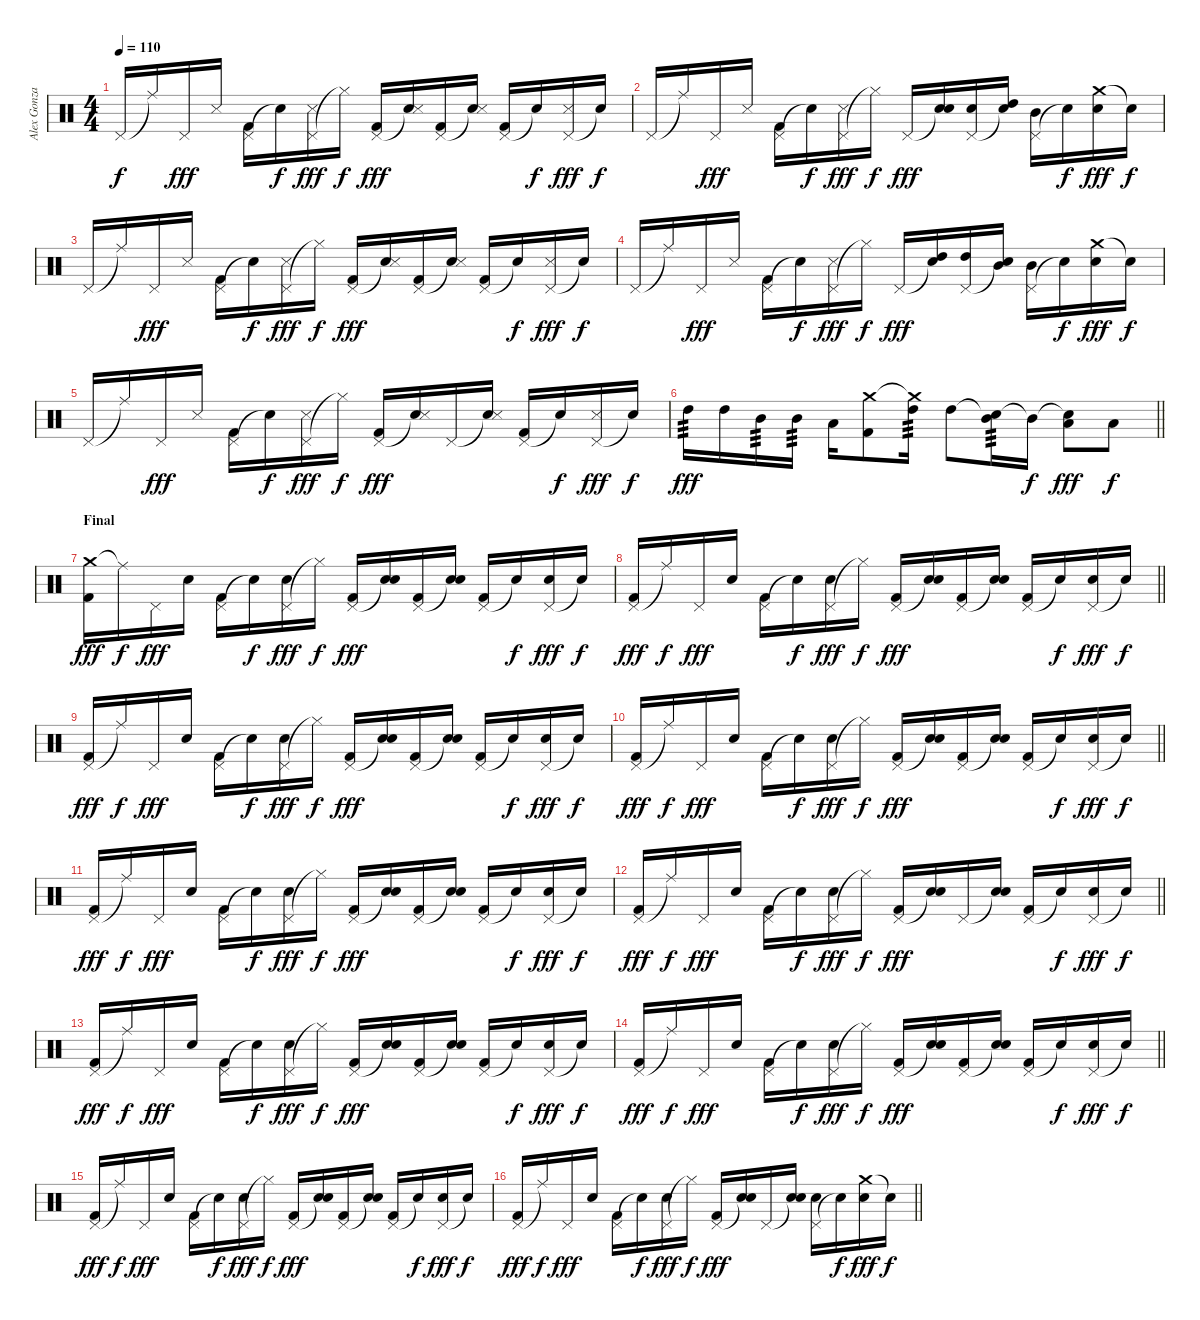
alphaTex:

\track ("Alex Gonzalez" "Alex Gonza") {instrument percussion}
\staff {score}
\articulation defaults
\ts (4 4)
\tempo 110
\clef neutral
\ks c "Pedal Hi-Hat (hit)".16{dy f} "Ride (middle)"{t}.16 "Pedal Hi-Hat (hit)".16{dy fff} "Snare (side stick) 3".16
("Pedal Hi-Hat (hit)" "Kick (hit) 2").16 "Snare (hit)"{t}.16{dy f} ("Pedal Hi-Hat (hit)" "Snare (side stick) 3").16{dy fff} "Hi-Hat (closed)"{t}.16{dy f} ("Pedal Hi-Hat (hit)" "Kick (hit) 2").16{dy fff} ("Snare (hit)"{t} "Snare (side stick) 3").16 ("Pedal Hi-Hat (hit)" "Kick (hit) 2").16 ("Snare (hit)"{t} "Snare (side stick) 3").16 ("Pedal Hi-Hat (hit)" "Kick (hit) 2").16 "Snare (hit)"{t}.16{dy f} ("Pedal Hi-Hat (hit)" "Snare (side stick) 3").16{dy fff} "Snare (hit)"{t}.16{dy f} |
"Pedal Hi-Hat (hit)".16 "Ride (middle)"{t}.16 "Pedal Hi-Hat (hit)".16{dy fff} "Snare (side stick) 3".16 ("Pedal Hi-Hat (hit)" "Kick (hit) 2").16 "Snare (hit)"{t}.16{dy f} ("Pedal Hi-Hat (hit)" "Snare (side stick) 3").16{dy fff} "Hi-Hat (closed)"{t}.16{dy f} "Pedal Hi-Hat (hit)".16{dy fff} ("Snare (hit)"{t} "Electric Snare (hit)").16 ("Pedal Hi-Hat (hit)" "Electric Snare (hit)").16 ("Snare (hit)"{t} "High Tom (hit)").16 ("Pedal Hi-Hat (hit)" "Mid Tom (hit)").16 "Snare (hit)"{t}.16{dy f} ("Crash medium (hit)" "Electric Snare (hit)").16{dy fff} "Snare (hit)"{t}.16{dy f} |
"Pedal Hi-Hat (hit)".16 "Ride (middle)"{t}.16 "Pedal Hi-Hat (hit)".16{dy fff} "Snare (side stick) 3".16 ("Pedal Hi-Hat (hit)" "Kick (hit) 2").16 "Snare (hit)"{t}.16{dy f} ("Pedal Hi-Hat (hit)" "Snare (side stick) 3").16{dy fff} "Hi-Hat (closed)"{t}.16{dy f} ("Pedal Hi-Hat (hit)" "Kick (hit) 2").16{dy fff} ("Snare (hit)"{t} "Snare (side stick) 3").16 ("Pedal Hi-Hat (hit)" "Kick (hit) 2").16 ("Snare (hit)"{t} "Snare (side stick) 3").16 ("Pedal Hi-Hat (hit)" "Kick (hit) 2").16 "Snare (hit)"{t}.16{dy f} ("Pedal Hi-Hat (hit)" "Snare (side stick) 3").16{dy fff} "Snare (hit)"{t}.16{dy f} |
"Pedal Hi-Hat (hit)".16 "Ride (middle)"{t}.16 "Pedal Hi-Hat (hit)".16{dy fff} "Snare (side stick) 3".16 ("Pedal Hi-Hat (hit)" "Kick (hit) 2").16 "Snare (hit)"{t}.16{dy f} ("Pedal Hi-Hat (hit)" "Snare (side stick) 3").16{dy fff} "Hi-Hat (closed)"{t}.16{dy f} "Pedal Hi-Hat (hit)".16{dy fff} ("Snare (hit)"{t} "High Tom (hit)").16 ("Pedal Hi-Hat (hit)" "High Tom (hit)").16 ("Snare (hit)"{t} "Mid Tom (hit)").16 ("Pedal Hi-Hat (hit)" "Mid Tom (hit)").16 "Snare (hit)"{t}.16{dy f} ("Crash medium (hit)" "Electric Snare (hit)").16{dy fff} "Snare (hit)"{t}.16{dy f} |
"Pedal Hi-Hat (hit)".16 "Ride (middle)"{t}.16 "Pedal Hi-Hat (hit)".16{dy fff} "Snare (side stick) 3".16 ("Pedal Hi-Hat (hit)" "Kick (hit) 2").16 "Snare (hit)"{t}.16{dy f} ("Pedal Hi-Hat (hit)" "Snare (side stick) 3").16{dy fff} "Hi-Hat (closed)"{t}.16{dy f} ("Pedal Hi-Hat (hit)" "Kick (hit) 2").16{dy fff} ("Snare (hit)"{t} "Snare (side stick) 3").16 "Pedal Hi-Hat (hit)".16 ("Snare (hit)"{t} "Snare (side stick) 3").16 ("Pedal Hi-Hat (hit)" "Kick (hit) 2").16 "Snare (hit)"{t}.16{dy f} ("Pedal Hi-Hat (hit)" "Snare (side stick) 3").16{dy fff} "Snare (hit)"{t}.16{dy f} |
\barLineRight lightlight "High Tom (hit)".16{tp 3 dy fff} "High Tom (hit)".16 "Mid Tom (hit)".16{tp 3} "Mid Tom (hit)".16{tp 3} "Low Tom (hit)".16
("Crash medium (hit)" "Kick (hit) 2").8 ("Crash medium (hit)"{t} "High Tom (hit)").16{tp 3} "High Tom (hit)".8 ("Snare (hit)"{t} "Mid Tom (hit)").16{tp 3} "Mid Tom (hit)"{t}.16{dy f} ("Snare (hit)"{t} "Low Tom (hit)").8{dy fff} "Low Tom (hit)".8{dy f} |
\section ("" "Final")
("Crash medium (hit)" "Kick (hit) 2").16{dy fff} "Ride (middle)"{t}.16{dy f} "Pedal Hi-Hat (hit)".16{dy fff} "Electric Snare (hit)".16 ("Pedal Hi-Hat (hit)" "Kick (hit) 2").16 "Snare (hit)"{t}.16{dy f} ("Pedal Hi-Hat (hit)" "Electric Snare (hit)").16{dy fff} "Hi-Hat (closed)"{t}.16{dy f} ("Pedal Hi-Hat (hit)" "Kick (hit) 2").16{dy fff} ("Snare (hit)"{t} "Electric Snare (hit)").16 ("Pedal Hi-Hat (hit)" "Kick (hit) 2").16 ("Snare (hit)"{t} "Electric Snare (hit)").16 ("Pedal Hi-Hat (hit)" "Kick (hit) 2").16 "Snare (hit)"{t}.16{dy f} ("Pedal Hi-Hat (hit)" "Electric Snare (hit)").16{dy fff} "Snare (hit)"{t}.16{dy f} |
\barLineRight lightlight
("Pedal Hi-Hat (hit)" "Kick (hit) 2").16{dy fff} "Ride (middle)"{t}.16{dy f} "Pedal Hi-Hat (hit)".16{dy fff} "Electric Snare (hit)".16 ("Pedal Hi-Hat (hit)" "Kick (hit) 2").16 "Snare (hit)"{t}.16{dy f} ("Pedal Hi-Hat (hit)" "Electric Snare (hit)").16{dy fff} "Hi-Hat (closed)"{t}.16{dy f} ("Pedal Hi-Hat (hit)" "Kick (hit) 2").16{dy fff} ("Snare (hit)"{t} "Electric Snare (hit)").16 ("Pedal Hi-Hat (hit)" "Kick (hit) 2").16 ("Snare (hit)"{t} "Electric Snare (hit)").16 ("Pedal Hi-Hat (hit)" "Kick (hit) 2").16 "Snare (hit)"{t}.16{dy f} ("Pedal Hi-Hat (hit)" "Electric Snare (hit)").16{dy fff} "Snare (hit)"{t}.16{dy f} |
("Pedal Hi-Hat (hit)" "Kick (hit) 2").16{dy fff} "Ride (middle)"{t}.16{dy f} "Pedal Hi-Hat (hit)".16{dy fff} "Electric Snare (hit)".16 ("Pedal Hi-Hat (hit)" "Kick (hit) 2").16 "Snare (hit)"{t}.16{dy f} ("Pedal Hi-Hat (hit)" "Electric Snare (hit)").16{dy fff} "Hi-Hat (closed)"{t}.16{dy f} ("Pedal Hi-Hat (hit)" "Kick (hit) 2").16{dy fff} ("Snare (hit)"{t} "Electric Snare (hit)").16 ("Pedal Hi-Hat (hit)" "Kick (hit) 2").16 ("Snare (hit)"{t} "Electric Snare (hit)").16 ("Pedal Hi-Hat (hit)" "Kick (hit) 2").16 "Snare (hit)"{t}.16{dy f} ("Pedal Hi-Hat (hit)" "Electric Snare (hit)").16{dy fff} "Snare (hit)"{t}.16{dy f} |
\barLineRight lightlight
("Pedal Hi-Hat (hit)" "Kick (hit) 2").16{dy fff} "Ride (middle)"{t}.16{dy f} "Pedal Hi-Hat (hit)".16{dy fff} "Electric Snare (hit)".16 ("Pedal Hi-Hat (hit)" "Kick (hit) 2").16 "Snare (hit)"{t}.16{dy f} ("Pedal Hi-Hat (hit)" "Electric Snare (hit)").16{dy fff} "Hi-Hat (closed)"{t}.16{dy f} ("Pedal Hi-Hat (hit)" "Kick (hit) 2").16{dy fff} ("Snare (hit)"{t} "Electric Snare (hit)").16 ("Pedal Hi-Hat (hit)" "Kick (hit) 2").16 ("Snare (hit)"{t} "Electric Snare (hit)").16 ("Pedal Hi-Hat (hit)" "Kick (hit) 2").16 "Snare (hit)"{t}.16{dy f} ("Pedal Hi-Hat (hit)" "Electric Snare (hit)").16{dy fff} "Snare (hit)"{t}.16{dy f} |
("Pedal Hi-Hat (hit)" "Kick (hit) 2").16{dy fff} "Ride (middle)"{t}.16{dy f} "Pedal Hi-Hat (hit)".16{dy fff} "Electric Snare (hit)".16 ("Pedal Hi-Hat (hit)" "Kick (hit) 2").16 "Snare (hit)"{t}.16{dy f} ("Pedal Hi-Hat (hit)" "Electric Snare (hit)").16{dy fff} "Hi-Hat (closed)"{t}.16{dy f} ("Pedal Hi-Hat (hit)" "Kick (hit) 2").16{dy fff} ("Snare (hit)"{t} "Electric Snare (hit)").16 ("Pedal Hi-Hat (hit)" "Kick (hit) 2").16 ("Snare (hit)"{t} "Electric Snare (hit)").16 ("Pedal Hi-Hat (hit)" "Kick (hit) 2").16 "Snare (hit)"{t}.16{dy f} ("Pedal Hi-Hat (hit)" "Electric Snare (hit)").16{dy fff} "Snare (hit)"{t}.16{dy f} |
\barLineRight lightlight
("Pedal Hi-Hat (hit)" "Kick (hit) 2").16{dy fff} "Ride (middle)"{t}.16{dy f} "Pedal Hi-Hat (hit)".16{dy fff} "Electric Snare (hit)".16 ("Pedal Hi-Hat (hit)" "Kick (hit) 2").16 "Snare (hit)"{t}.16{dy f} ("Pedal Hi-Hat (hit)" "Electric Snare (hit)").16{dy fff} "Hi-Hat (closed)"{t}.16{dy f} ("Pedal Hi-Hat (hit)" "Kick (hit) 2").16{dy fff} ("Snare (hit)"{t} "Electric Snare (hit)").16 "Pedal Hi-Hat (hit)".16 ("Snare (hit)"{t} "Electric Snare (hit)").16 ("Pedal Hi-Hat (hit)" "Kick (hit) 2").16 "Snare (hit)"{t}.16{dy f} ("Pedal Hi-Hat (hit)" "Electric Snare (hit)").16{dy fff} "Snare (hit)"{t}.16{dy f} |
("Pedal Hi-Hat (hit)" "Kick (hit) 2").16{dy fff} "Ride (middle)"{t}.16{dy f} "Pedal Hi-Hat (hit)".16{dy fff} "Electric Snare (hit)".16 ("Pedal Hi-Hat (hit)" "Kick (hit) 2").16 "Snare (hit)"{t}.16{dy f} ("Pedal Hi-Hat (hit)" "Electric Snare (hit)").16{dy fff} "Hi-Hat (closed)"{t}.16{dy f} ("Pedal Hi-Hat (hit)" "Kick (hit) 2").16{dy fff} ("Snare (hit)"{t} "Electric Snare (hit)").16 ("Pedal Hi-Hat (hit)" "Kick (hit) 2").16 ("Snare (hit)"{t} "Electric Snare (hit)").16 ("Pedal Hi-Hat (hit)" "Kick (hit) 2").16 "Snare (hit)"{t}.16{dy f} ("Pedal Hi-Hat (hit)" "Electric Snare (hit)").16{dy fff} "Snare (hit)"{t}.16{dy f} |
\barLineRight lightlight
("Pedal Hi-Hat (hit)" "Kick (hit) 2").16{dy fff} "Ride (middle)"{t}.16{dy f} "Pedal Hi-Hat (hit)".16{dy fff} "Electric Snare (hit)".16 ("Pedal Hi-Hat (hit)" "Kick (hit) 2").16 "Snare (hit)"{t}.16{dy f} ("Pedal Hi-Hat (hit)" "Electric Snare (hit)").16{dy fff} "Hi-Hat (closed)"{t}.16{dy f} ("Pedal Hi-Hat (hit)" "Kick (hit) 2").16{dy fff} ("Snare (hit)"{t} "Electric Snare (hit)").16 ("Pedal Hi-Hat (hit)" "Kick (hit) 2").16 ("Snare (hit)"{t} "Electric Snare (hit)").16 ("Pedal Hi-Hat (hit)" "Kick (hit) 2").16 "Snare (hit)"{t}.16{dy f} ("Pedal Hi-Hat (hit)" "Electric Snare (hit)").16{dy fff} "Snare (hit)"{t}.16{dy f} |
("Pedal Hi-Hat (hit)" "Kick (hit) 2").16{dy fff} "Ride (middle)"{t}.16{dy f} "Pedal Hi-Hat (hit)".16{dy fff} "Electric Snare (hit)".16 ("Pedal Hi-Hat (hit)" "Kick (hit) 2").16 "Snare (hit)"{t}.16{dy f} ("Pedal Hi-Hat (hit)" "Electric Snare (hit)").16{dy fff} "Hi-Hat (closed)"{t}.16{dy f} ("Pedal Hi-Hat (hit)" "Kick (hit) 2").16{dy fff} ("Snare (hit)"{t} "Electric Snare (hit)").16 ("Pedal Hi-Hat (hit)" "Kick (hit) 2").16 ("Snare (hit)"{t} "Electric Snare (hit)").16 ("Pedal Hi-Hat (hit)" "Kick (hit) 2").16 "Snare (hit)"{t}.16{dy f} ("Pedal Hi-Hat (hit)" "Electric Snare (hit)").16{dy fff} "Snare (hit)"{t}.16{dy f} |
\barLineRight lightlight
("Pedal Hi-Hat (hit)" "Kick (hit) 2").16{dy fff} "Ride (middle)"{t}.16{dy f} "Pedal Hi-Hat (hit)".16{dy fff} "Electric Snare (hit)".16 ("Pedal Hi-Hat (hit)" "Kick (hit) 2").16 "Snare (hit)"{t}.16{dy f} ("Pedal Hi-Hat (hit)" "Electric Snare (hit)").16{dy fff} "Hi-Hat (closed)"{t}.16{dy f} ("Pedal Hi-Hat (hit)" "Kick (hit) 2").16{dy fff} ("Snare (hit)"{t} "Electric Snare (hit)").16 "Pedal Hi-Hat (hit)".16 ("Snare (hit)"{t} "Electric Snare (hit)").16 ("Pedal Hi-Hat (hit)" "Electric Snare (hit)").16 "Snare (hit)"{t}.16{dy f} ("Crash medium (hit)" "Electric Snare (hit)").16{dy fff} "Snare (hit)"{t}.16{dy f}
